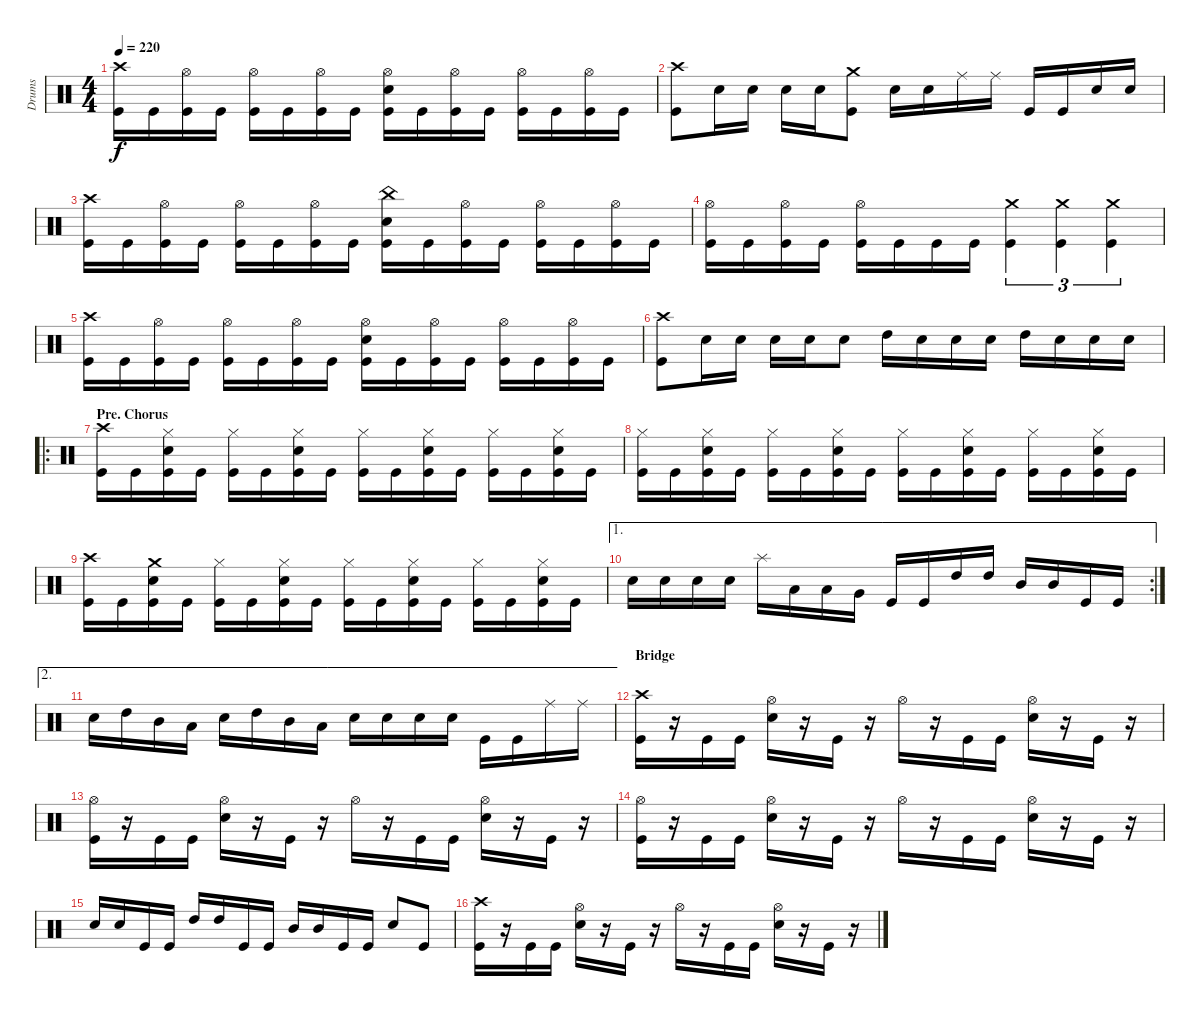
\track ("Drums" "Drums") {instrument percussion}
\staff {score}
\articulation defaults
\ts (4 4)
\tempo 220
\clef neutral
\ks c
("Crash high (hit)" "Kick (hit)").16{dy f} "Kick (hit)".16 ("Hi-Hat (open)" "Kick (hit)").16 "Kick (hit)".16 ("Hi-Hat (open)" "Kick (hit)").16 "Kick (hit)".16 ("Hi-Hat (open)" "Kick (hit)").16 "Kick (hit)".16 ("Hi-Hat (open)" "Snare (hit) 2" "Kick (hit)").16 "Kick (hit)".16 ("Hi-Hat (open)" "Kick (hit)").16 "Kick (hit)".16 ("Hi-Hat (open)" "Kick (hit)").16 "Kick (hit)".16 ("Hi-Hat (open)" "Kick (hit)").16 "Kick (hit)".16 |
("Crash high (hit)" "Kick (hit)").8 "Snare (hit) 2".16 "Snare (hit) 2".16 "Snare (hit) 2".16 "Snare (hit) 2".16 ("Crash medium (hit)" "Kick (hit)").8 "Snare (hit) 2".16 "Snare (hit) 2".16 "Ride (middle)".16 "Ride (middle)".16 "Kick (hit)".16 "Kick (hit)".16 "Snare (hit) 2".16 "Snare (hit) 2".16 |
("Crash high (hit)" "Kick (hit)").16 "Kick (hit)".16 ("Hi-Hat (open)" "Kick (hit)").16 "Kick (hit)".16 ("Hi-Hat (open)" "Kick (hit)").16 "Kick (hit)".16 ("Hi-Hat (open)" "Kick (hit)").16 "Kick (hit)".16 ("China (hit)" "Snare (hit) 2" "Kick (hit)").16 "Kick (hit)".16 ("Hi-Hat (open)" "Kick (hit)").16 "Kick (hit)".16 ("Hi-Hat (open)" "Kick (hit)").16 "Kick (hit)".16 ("Hi-Hat (open)" "Kick (hit)").16 "Kick (hit)".16 |
("Hi-Hat (open)" "Kick (hit)").16 "Kick (hit)".16 ("Hi-Hat (open)" "Kick (hit)").16 "Kick (hit)".16 ("Hi-Hat (open)" "Kick (hit)").16 "Kick (hit)".16 "Kick (hit)".16 "Kick (hit)".16 ("Crash medium (hit)" "Kick (hit)").4{tu (3 2)} ("Crash medium (hit)" "Kick (hit)").4{tu (3 2)} ("Crash medium (hit)" "Kick (hit)").4{tu (3 2)} |
("Crash high (hit)" "Kick (hit)").16 "Kick (hit)".16 ("Hi-Hat (open)" "Kick (hit)").16 "Kick (hit)".16 ("Hi-Hat (open)" "Kick (hit)").16 "Kick (hit)".16 ("Hi-Hat (open)" "Kick (hit)").16 "Kick (hit)".16 ("Hi-Hat (open)" "Snare (hit) 2" "Kick (hit)").16 "Kick (hit)".16 ("Hi-Hat (open)" "Kick (hit)").16 "Kick (hit)".16 ("Hi-Hat (open)" "Kick (hit)").16 "Kick (hit)".16 ("Hi-Hat (open)" "Kick (hit)").16 "Kick (hit)".16 |
("Crash high (hit)" "Kick (hit)").8 "Snare (hit) 2".16 "Snare (hit) 2".16 "Snare (hit) 2".16 "Snare (hit) 2".16 "Snare (hit) 2".8 "High Tom (hit)".16 "Snare (hit) 2".16 "Snare (hit) 2".16 "Snare (hit) 2".16 "High Tom (hit)".16 "Snare (hit) 2".16 "Snare (hit) 2".16 "Snare (hit) 2".16 |
\ro
\section ("" "Pre. Chorus")
("Crash high (hit)" "Kick (hit)").16 "Kick (hit)".16 ("Hi-Hat (closed)" "Snare (hit) 2" "Kick (hit)").16 "Kick (hit)".16 ("Hi-Hat (closed)" "Kick (hit)").16 "Kick (hit)".16 ("Hi-Hat (closed)" "Snare (hit) 2" "Kick (hit)").16 "Kick (hit)".16 ("Hi-Hat (closed)" "Kick (hit)").16 "Kick (hit)".16 ("Hi-Hat (closed)" "Snare (hit) 2" "Kick (hit)").16 "Kick (hit)".16 ("Hi-Hat (closed)" "Kick (hit)").16 "Kick (hit)".16 ("Hi-Hat (closed)" "Snare (hit) 2" "Kick (hit)").16 "Kick (hit)".16 |
("Hi-Hat (closed)" "Kick (hit)").16 "Kick (hit)".16 ("Hi-Hat (closed)" "Snare (hit) 2" "Kick (hit)").16 "Kick (hit)".16 ("Hi-Hat (closed)" "Kick (hit)").16 "Kick (hit)".16 ("Hi-Hat (closed)" "Snare (hit) 2" "Kick (hit)").16 "Kick (hit)".16 ("Hi-Hat (closed)" "Kick (hit)").16 "Kick (hit)".16 ("Hi-Hat (closed)" "Snare (hit) 2" "Kick (hit)").16 "Kick (hit)".16 ("Hi-Hat (closed)" "Kick (hit)").16 "Kick (hit)".16 ("Hi-Hat (closed)" "Snare (hit) 2" "Kick (hit)").16 "Kick (hit)".16 |
("Crash high (hit)" "Kick (hit)").16 "Kick (hit)".16 ("Crash medium (hit)" "Snare (hit) 2" "Kick (hit)").16 "Kick (hit)".16 ("Hi-Hat (closed)" "Kick (hit)").16 "Kick (hit)".16 ("Hi-Hat (closed)" "Snare (hit) 2" "Kick (hit)").16 "Kick (hit)".16 ("Hi-Hat (closed)" "Kick (hit)").16 "Kick (hit)".16 ("Hi-Hat (closed)" "Snare (hit) 2" "Kick (hit)").16 "Kick (hit)".16 ("Hi-Hat (closed)" "Kick (hit)").16 "Kick (hit)".16 ("Hi-Hat (closed)" "Snare (hit) 2" "Kick (hit)").16 "Kick (hit)".16 |
\ae 1
\rc 2 "Snare (hit) 2".16 "Snare (hit) 2".16 "Snare (hit) 2".16 "Snare (hit) 2".16 "Splash (hit)".16 "Low Tom (hit)".16 "Low Tom (hit)".16 "Very Low Tom (hit)".16 "Kick (hit)".16 "Kick (hit)".16 "High Tom (hit)".16 "High Tom (hit)".16 "Mid Tom (hit)".16 "Mid Tom (hit)".16 "Kick (hit)".16 "Kick (hit)".16
|
\ae 2 "Snare (hit) 2".16 "High Tom (hit)".16 "Mid Tom (hit)".16 "Low Tom (hit)".16 "Snare (hit) 2".16 "High Tom (hit)".16 "Mid Tom (hit)".16 "Low Tom (hit)".16 "Snare (hit) 2".16 "Snare (hit) 2".16 "Snare (hit) 2".16 "Snare (hit) 2".16 "Kick (hit)".16 "Kick (hit)".16 "Ride (middle)".16 "Ride (middle)".16
|
\section ("" "Bridge")
("Crash high (hit)" "Kick (hit)").16 r.16 "Kick (hit)".16 "Kick (hit)".16 ("Hi-Hat (open)" "Snare (hit) 2").16 r.16 "Kick (hit)".16 r.16 "Hi-Hat (open)".16 r.16 "Kick (hit)".16 "Kick (hit)".16 ("Hi-Hat (open)" "Snare (hit) 2").16 r.16 "Kick (hit)".16 r.16 |
("Hi-Hat (open)" "Kick (hit)").16 r.16 "Kick (hit)".16 "Kick (hit)".16 ("Hi-Hat (open)" "Snare (hit) 2").16 r.16 "Kick (hit)".16 r.16 "Hi-Hat (open)".16 r.16 "Kick (hit)".16 "Kick (hit)".16 ("Hi-Hat (open)" "Snare (hit) 2").16 r.16 "Kick (hit)".16 r.16 |
("Hi-Hat (open)" "Kick (hit)").16 r.16 "Kick (hit)".16 "Kick (hit)".16 ("Hi-Hat (open)" "Snare (hit) 2").16 r.16 "Kick (hit)".16 r.16 "Hi-Hat (open)".16 r.16 "Kick (hit)".16 "Kick (hit)".16 ("Hi-Hat (open)" "Snare (hit) 2").16 r.16 "Kick (hit)".16 r.16 |
"Snare (hit) 2".16 "Snare (hit) 2".16 "Kick (hit)".16 "Kick (hit)".16 "High Tom (hit)".16 "High Tom (hit)".16 "Kick (hit)".16 "Kick (hit)".16 "Mid Tom (hit)".16 "Mid Tom (hit)".16 "Kick (hit)".16 "Kick (hit)".16 "Snare (hit) 2".8 "Kick (hit)".8 |
("Crash high (hit)" "Kick (hit)").16 r.16 "Kick (hit)".16 "Kick (hit)".16 ("Hi-Hat (open)" "Snare (hit) 2").16 r.16 "Kick (hit)".16 r.16 "Hi-Hat (open)".16 r.16 "Kick (hit)".16 "Kick (hit)".16 ("Hi-Hat (open)" "Snare (hit) 2").16 r.16 "Kick (hit)".16 r.16
